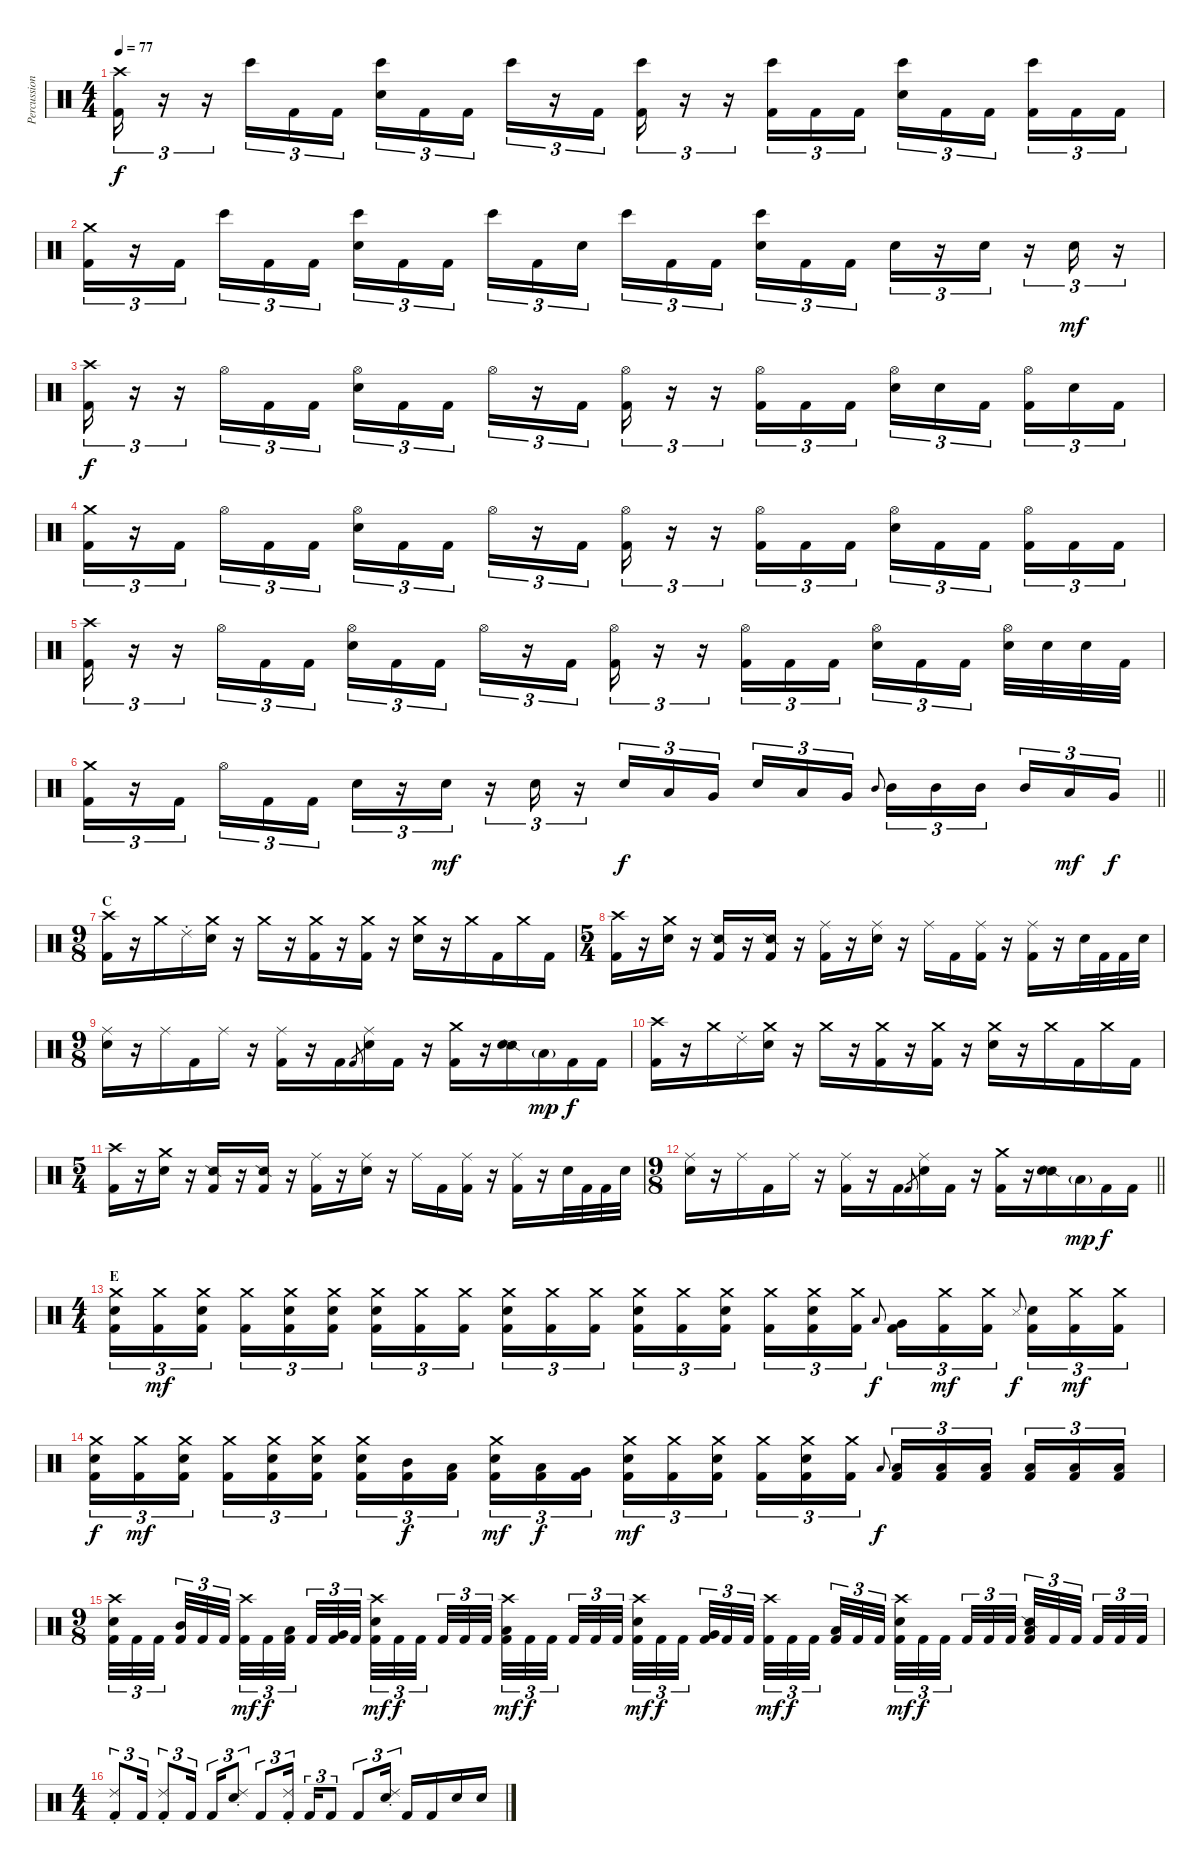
\track ("Percussion" "Percussion") {instrument percussion}
\staff {score}
\articulation defaults
\ts (4 4)
\tempo 77
\clef neutral
\ks c
("Crash high (hit)" "Kick (hit) 2").16{tu (3 2) dy f} r.16{tu (3 2)} r.16{tu (3 2)} "Bongo High (hit)".16{tu (3 2)} "Kick (hit) 2".16{tu (3 2)} "Kick (hit) 2".16{tu (3 2)} ("Bongo High (hit)" "Snare (hit) 2").16{tu (3 2)} "Kick (hit) 2".16{tu (3 2)} "Kick (hit) 2".16{tu (3 2) beam splitsecondary} "Bongo High (hit)".16{tu (3 2)} r.16{tu (3 2)} "Kick (hit) 2".16{tu (3 2)} ("Bongo High (hit)" "Kick (hit) 2").16{tu (3 2)} r.16{tu (3 2)} r.16{tu (3 2)} ("Bongo High (hit)" "Kick (hit) 2").16{tu (3 2)} "Kick (hit) 2".16{tu (3 2)} "Kick (hit) 2".16{tu (3 2)} ("Bongo High (hit)" "Snare (hit) 2").16{tu (3 2)} "Kick (hit) 2".16{tu (3 2)} "Kick (hit) 2".16{tu (3 2) beam splitsecondary} ("Bongo High (hit)" "Kick (hit) 2").16{tu (3 2)} "Kick (hit) 2".16{tu (3 2)} "Kick (hit) 2".16{tu (3 2)} |
("Crash medium (hit)" "Kick (hit) 2").16{tu (3 2)} r.16{tu (3 2)} "Kick (hit) 2".16{tu (3 2) beam splitsecondary} "Bongo High (hit)".16{tu (3 2)} "Kick (hit) 2".16{tu (3 2)} "Kick (hit) 2".16{tu (3 2)} ("Bongo High (hit)" "Snare (hit) 2").16{tu (3 2)} "Kick (hit) 2".16{tu (3 2)} "Kick (hit) 2".16{tu (3 2) beam splitsecondary} "Bongo High (hit)".16{tu (3 2)} "Kick (hit) 2".16{tu (3 2)} "Snare (hit) 2".16{tu (3 2)} "Bongo High (hit)".16{tu (3 2)} "Kick (hit) 2".16{tu (3 2)} "Kick (hit) 2".16{tu (3 2) beam splitsecondary} ("Bongo High (hit)" "Snare (hit) 2").16{tu (3 2)} "Kick (hit) 2".16{tu (3 2)} "Kick (hit) 2".16{tu (3 2)} "Snare (hit) 2".16{tu (3 2)} r.16{tu (3 2)} "Snare (hit) 2".16{tu (3 2)} r.16{tu (3 2)} "Snare (hit) 2".16{tu (3 2) dy mf} r.16{tu (3 2)} |
("Crash high (hit)" "Kick (hit) 2").16{tu (3 2) dy f} r.16{tu (3 2)} r.16{tu (3 2)} "Hi-Hat (open)".16{tu (3 2)} "Kick (hit) 2".16{tu (3 2)} "Kick (hit) 2".16{tu (3 2)} ("Hi-Hat (open)" "Snare (hit) 2").16{tu (3 2)} "Kick (hit) 2".16{tu (3 2)} "Kick (hit) 2".16{tu (3 2) beam splitsecondary} "Hi-Hat (open)".16{tu (3 2)} r.16{tu (3 2)} "Kick (hit) 2".16{tu (3 2)} ("Hi-Hat (open)" "Kick (hit) 2").16{tu (3 2)} r.16{tu (3 2)} r.16{tu (3 2)} ("Hi-Hat (open)" "Kick (hit) 2").16{tu (3 2)} "Kick (hit) 2".16{tu (3 2)} "Kick (hit) 2".16{tu (3 2)} ("Hi-Hat (open)" "Snare (hit) 2").16{tu (3 2)} "Snare (hit) 2".16{tu (3 2)} "Kick (hit) 2".16{tu (3 2) beam splitsecondary} ("Hi-Hat (open)" "Kick (hit) 2").16{tu (3 2)} "Snare (hit) 2".16{tu (3 2)} "Kick (hit) 2".16{tu (3 2)} |
("Crash medium (hit)" "Kick (hit) 2").16{tu (3 2)} r.16{tu (3 2)} "Kick (hit) 2".16{tu (3 2) beam splitsecondary} "Hi-Hat (open)".16{tu (3 2)} "Kick (hit) 2".16{tu (3 2)} "Kick (hit) 2".16{tu (3 2)} ("Hi-Hat (open)" "Snare (hit) 2").16{tu (3 2)} "Kick (hit) 2".16{tu (3 2)} "Kick (hit) 2".16{tu (3 2) beam splitsecondary} "Hi-Hat (open)".16{tu (3 2)} r.16{tu (3 2)} "Kick (hit) 2".16{tu (3 2)} ("Hi-Hat (open)" "Kick (hit) 2").16{tu (3 2)} r.16{tu (3 2)} r.16{tu (3 2)} ("Hi-Hat (open)" "Kick (hit) 2").16{tu (3 2)} "Kick (hit) 2".16{tu (3 2)} "Kick (hit) 2".16{tu (3 2)} ("Hi-Hat (open)" "Snare (hit) 2").16{tu (3 2)} "Kick (hit) 2".16{tu (3 2)} "Kick (hit) 2".16{tu (3 2) beam splitsecondary} ("Hi-Hat (open)" "Kick (hit) 2").16{tu (3 2)} "Kick (hit) 2".16{tu (3 2)} "Kick (hit) 2".16{tu (3 2)} |
("Crash high (hit)" "Kick (hit) 2").16{tu (3 2)} r.16{tu (3 2)} r.16{tu (3 2)} "Hi-Hat (open)".16{tu (3 2)} "Kick (hit) 2".16{tu (3 2)} "Kick (hit) 2".16{tu (3 2)} ("Hi-Hat (open)" "Snare (hit) 2").16{tu (3 2)} "Kick (hit) 2".16{tu (3 2)} "Kick (hit) 2".16{tu (3 2) beam splitsecondary} "Hi-Hat (open)".16{tu (3 2)} r.16{tu (3 2)} "Kick (hit) 2".16{tu (3 2)} ("Hi-Hat (open)" "Kick (hit) 2").16{tu (3 2)} r.16{tu (3 2)} r.16{tu (3 2)} ("Hi-Hat (open)" "Kick (hit) 2").16{tu (3 2)} "Kick (hit) 2".16{tu (3 2)} "Kick (hit) 2".16{tu (3 2)} ("Hi-Hat (open)" "Snare (hit) 2").16{tu (3 2)} "Kick (hit) 2".16{tu (3 2)} "Kick (hit) 2".16{tu (3 2) beam splitsecondary} ("Hi-Hat (open)" "Snare (hit) 2").32 "Snare (hit) 2".32 "Snare (hit) 2".32 "Kick (hit) 2".32 |
\barLineRight lightlight
("Crash medium (hit)" "Kick (hit) 2").16{tu (3 2)} r.16{tu (3 2)} "Kick (hit) 2".16{tu (3 2) beam splitsecondary} "Hi-Hat (open)".16{tu (3 2)} "Kick (hit) 2".16{tu (3 2)} "Kick (hit) 2".16{tu (3 2)} "Snare (hit) 2".16{tu (3 2)} r.16{tu (3 2)} "Snare (hit) 2".16{tu (3 2) dy mf} r.16{tu (3 2)} "Snare (hit) 2".16{tu (3 2)} r.16{tu (3 2)} "Snare (hit) 2".16{tu (3 2) dy f} "Low Tom (hit)".16{tu (3 2)} "Very Low Tom (hit)".16{tu (3 2) beam splitsecondary} "Snare (hit) 2".16{tu (3 2)} "Low Tom (hit)".16{tu (3 2)} "Very Low Tom (hit)".16{tu (3 2)} "Mid Tom (hit)".8{gr onbeat} "Mid Tom (hit)".16{tu (3 2)} "Mid Tom (hit)".16{tu (3 2)} "Mid Tom (hit)".16{tu (3 2) beam splitsecondary} "Mid Tom (hit)".16{tu (3 2)} "Low Tom (hit)".16{tu (3 2) dy mf} "Very Low Tom (hit)".16{tu (3 2) dy f} |
\ts (9 8)
\section ("" "C")
("Crash high (hit)" "Kick (hit) 2").16 r.16 "Crash medium (hit)".16 "Ride (choke) 2".16 ("Crash medium (hit)" "Snare (hit) 2").16 r.16 "Crash medium (hit)".16 r.16 ("Crash medium (hit)" "Kick (hit) 2").16 r.16 ("Crash medium (hit)" "Kick (hit) 2").16 r.16 ("Crash medium (hit)" "Snare (hit) 2").16 r.16 "Crash medium (hit)".16 "Kick (hit) 2".16 "Crash medium (hit)".16 "Kick (hit) 2".16 |
\ts (5 4)
("Crash high (hit)" "Kick (hit) 2").16 r.16 ("Crash medium (hit)" "Snare (hit) 2").16 r.16 ("Snare (side stick) 2" "Kick (hit) 2").16 r.16 ("Snare (side stick) 2" "Kick (hit) 2").16 r.16 ("Ride (middle)" "Kick (hit) 2").16 r.16 ("Ride (middle)" "Snare (hit) 2").16 r.16 "Ride (middle)".16 "Kick (hit) 2".16 ("Ride (middle)" "Kick (hit) 2").16 r.16 ("Ride (middle)" "Kick (hit) 2").16 r.16 "Snare (hit) 2".32 "Kick (hit) 2".32 "Kick (hit) 2".32 "Snare (hit) 2".32 |
\ts (9 8)
("Ride (middle)" "Snare (hit) 2").16 r.16 "Ride (middle)".16 "Kick (hit) 2".16 "Ride (middle)".16 r.16 ("Ride (middle)" "Kick (hit) 2").16 r.16 "Kick (hit) 2".16 "Kick (hit) 2".8{gr} ("Ride (middle)" "Snare (hit) 2").16 "Kick (hit) 2".16 r.16 ("Crash medium (hit)" "Kick (hit) 2").16 r.16 ("Snare (side stick) 2" "Snare (hit) 2").16 "Low Tom (hit)"{g}.16{dy mp} "Kick (hit) 2".16{dy f} "Kick (hit) 2".16 |
("Crash high (hit)" "Kick (hit) 2").16 r.16 "Crash medium (hit)".16 "Ride (choke) 2".16 ("Crash medium (hit)" "Snare (hit) 2").16 r.16 "Crash medium (hit)".16 r.16 ("Crash medium (hit)" "Kick (hit) 2").16 r.16 ("Crash medium (hit)" "Kick (hit) 2").16 r.16 ("Crash medium (hit)" "Snare (hit) 2").16 r.16 "Crash medium (hit)".16 "Kick (hit) 2".16 "Crash medium (hit)".16 "Kick (hit) 2".16 |
\ts (5 4)
("Crash high (hit)" "Kick (hit) 2").16 r.16 ("Crash medium (hit)" "Snare (hit) 2").16 r.16 ("Snare (side stick) 2" "Kick (hit) 2").16 r.16 ("Snare (side stick) 2" "Kick (hit) 2").16 r.16 ("Ride (middle)" "Kick (hit) 2").16 r.16 ("Ride (middle)" "Snare (hit) 2").16 r.16 "Ride (middle)".16 "Kick (hit) 2".16 ("Ride (middle)" "Kick (hit) 2").16 r.16 ("Ride (middle)" "Kick (hit) 2").16 r.16 "Snare (hit) 2".32 "Kick (hit) 2".32 "Kick (hit) 2".32 "Snare (hit) 2".32 |
\ts (9 8)
\barLineRight lightlight
("Ride (middle)" "Snare (hit) 2").16 r.16 "Ride (middle)".16 "Kick (hit) 2".16 "Ride (middle)".16 r.16 ("Ride (middle)" "Kick (hit) 2").16 r.16 "Kick (hit) 2".16 "Kick (hit) 2".8{gr} ("Ride (middle)" "Snare (hit) 2").16 "Kick (hit) 2".16 r.16 ("Crash medium (hit)" "Kick (hit) 2").16 r.16 ("Snare (side stick) 2" "Snare (hit) 2").16 "Low Tom (hit)"{g}.16{dy mp} "Kick (hit) 2".16{dy f} "Kick (hit) 2".16 |
\ts (4 4)
\section ("" "E")
("Crash medium (hit)" "Snare (hit) 2" "Kick (hit) 2").16{tu (3 2)} ("Crash medium (hit)" "Kick (hit) 2").16{tu (3 2) dy mf} ("Crash medium (hit)" "Snare (hit) 2" "Kick (hit) 2").16{tu (3 2) beam splitsecondary} ("Crash medium (hit)" "Kick (hit) 2").16{tu (3 2)} ("Crash medium (hit)" "Snare (hit) 2" "Kick (hit) 2").16{tu (3 2)} ("Crash medium (hit)" "Snare (hit) 2" "Kick (hit) 2").16{tu (3 2)} ("Crash medium (hit)" "Snare (hit) 2" "Kick (hit) 2").16{tu (3 2)} ("Crash medium (hit)" "Kick (hit) 2").16{tu (3 2)} ("Crash medium (hit)" "Kick (hit) 2").16{tu (3 2) beam splitsecondary} ("Crash medium (hit)" "Snare (hit) 2" "Kick (hit) 2").16{tu (3 2)} ("Crash medium (hit)" "Kick (hit) 2").16{tu (3 2)} ("Crash medium (hit)" "Kick (hit) 2").16{tu (3 2)} ("Crash medium (hit)" "Snare (hit) 2" "Kick (hit) 2").16{tu (3 2)} ("Crash medium (hit)" "Kick (hit) 2").16{tu (3 2)} ("Crash medium (hit)" "Snare (hit) 2" "Kick (hit) 2").16{tu (3 2) beam splitsecondary} ("Crash medium (hit)" "Kick (hit) 2").16{tu (3 2)} ("Crash medium (hit)" "Snare (hit) 2" "Kick (hit) 2").16{tu (3 2)} ("Crash medium (hit)" "Kick (hit) 2").16{tu (3 2)} "Low Tom (hit)".8{gr onbeat dy f} ("Very Low Tom (hit)" "Kick (hit) 2").16{tu (3 2)} ("Crash medium (hit)" "Kick (hit) 2").16{tu (3 2) dy mf} ("Crash medium (hit)" "Kick (hit) 2").16{tu (3 2)} "Metronome (hit)".8{gr onbeat dy f beam splitsecondary} ("Snare (hit) 2" "Kick (hit) 2").16{tu (3 2)} ("Crash medium (hit)" "Kick (hit) 2").16{tu (3 2) dy mf} ("Crash medium (hit)" "Kick (hit) 2").16{tu (3 2)} |
("Crash medium (hit)" "Snare (hit) 2" "Kick (hit) 2").16{tu (3 2) dy f} ("Crash medium (hit)" "Kick (hit) 2").16{tu (3 2) dy mf} ("Crash medium (hit)" "Snare (hit) 2" "Kick (hit) 2").16{tu (3 2) beam splitsecondary} ("Crash medium (hit)" "Kick (hit) 2").16{tu (3 2)} ("Crash medium (hit)" "Snare (hit) 2" "Kick (hit) 2").16{tu (3 2)} ("Crash medium (hit)" "Snare (hit) 2" "Kick (hit) 2").16{tu (3 2)} ("Crash medium (hit)" "Snare (hit) 2" "Kick (hit) 2").16{tu (3 2)} ("Mid Tom (hit)" "Kick (hit) 2").16{tu (3 2) dy f} ("Low Tom (hit)" "Kick (hit) 2").16{tu (3 2) beam splitsecondary} ("Crash medium (hit)" "Snare (hit) 2" "Kick (hit) 2").16{tu (3 2) dy mf} ("Low Tom (hit)" "Kick (hit) 2").16{tu (3 2) dy f} ("Very Low Tom (hit)" "Kick (hit) 2").16{tu (3 2)} ("Crash medium (hit)" "Snare (hit) 2" "Kick (hit) 2").16{tu (3 2) dy mf} ("Crash medium (hit)" "Kick (hit) 2").16{tu (3 2)} ("Crash medium (hit)" "Snare (hit) 2" "Kick (hit) 2").16{tu (3 2) beam splitsecondary} ("Crash medium (hit)" "Kick (hit) 2").16{tu (3 2)} ("Crash medium (hit)" "Snare (hit) 2" "Kick (hit) 2").16{tu (3 2)} ("Crash medium (hit)" "Kick (hit) 2").16{tu (3 2)} "Low Tom (hit)".8{gr onbeat dy f} ("Low Tom (hit)" "Kick (hit) 2").16{tu (3 2)} ("Low Tom (hit)" "Kick (hit) 2").16{tu (3 2)} ("Low Tom (hit)" "Kick (hit) 2").16{tu (3 2) beam splitsecondary} ("Low Tom (hit)" "Kick (hit) 2").16{tu (3 2)} ("Low Tom (hit)" "Kick (hit) 2").16{tu (3 2)} ("Low Tom (hit)" "Kick (hit) 2").16{tu (3 2)} |
\ts (9 8)
("Crash high (hit)" "Snare (hit) 2" "Kick (hit) 2").32{tu (3 2)} "Kick (hit) 2".32{tu (3 2)} "Kick (hit) 2".32{tu (3 2) beam splitsecondary} ("Mid Tom (hit)" "Kick (hit) 2").32{tu (3 2)} "Kick (hit) 2".32{tu (3 2)} "Kick (hit) 2".32{tu (3 2) beam splitsecondary} ("Crash high (hit)" "Kick (hit) 2").32{tu (3 2) dy mf} "Kick (hit) 2".32{tu (3 2) dy f} ("Low Tom (hit)" "Kick (hit) 2").32{tu (3 2) beam splitsecondary} "Kick (hit) 2".32{tu (3 2)} ("Very Low Tom (hit)" "Kick (hit) 2").32{tu (3 2)} "Kick (hit) 2".32{tu (3 2) beam splitsecondary} ("Crash high (hit)" "Snare (hit) 2" "Kick (hit) 2").32{tu (3 2) dy mf} "Kick (hit) 2".32{tu (3 2) dy f} "Kick (hit) 2".32{tu (3 2) beam splitsecondary} "Kick (hit) 2".32{tu (3 2)} "Kick (hit) 2".32{tu (3 2)} "Kick (hit) 2".32{tu (3 2)} ("Crash high (hit)" "Low Tom (hit)" "Kick (hit) 2").32{tu (3 2) dy mf} "Kick (hit) 2".32{tu (3 2) dy f} "Kick (hit) 2".32{tu (3 2) beam splitsecondary} "Kick (hit) 2".32{tu (3 2)} "Kick (hit) 2".32{tu (3 2)} "Kick (hit) 2".32{tu (3 2) beam splitsecondary} ("Crash high (hit)" "Snare (hit) 2" "Kick (hit) 2").32{tu (3 2) dy mf} "Kick (hit) 2".32{tu (3 2) dy f} "Kick (hit) 2".32{tu (3 2) beam splitsecondary} ("Very Low Tom (hit)" "Kick (hit) 2").32{tu (3 2)} "Kick (hit) 2".32{tu (3 2)} "Kick (hit) 2".32{tu (3 2) beam splitsecondary} ("Crash high (hit)" "Kick (hit) 2").32{tu (3 2) dy mf} "Kick (hit) 2".32{tu (3 2) dy f} "Kick (hit) 2".32{tu (3 2) beam splitsecondary} ("Low Tom (hit)" "Kick (hit) 2").32{tu (3 2)} "Kick (hit) 2".32{tu (3 2)} "Kick (hit) 2".32{tu (3 2)} ("Crash high (hit)" "Snare (hit) 2" "Kick (hit) 2").32{tu (3 2) dy mf} "Kick (hit) 2".32{tu (3 2) dy f} "Kick (hit) 2".32{tu (3 2) beam splitsecondary} "Kick (hit) 2".32{tu (3 2)} "Kick (hit) 2".32{tu (3 2)} "Kick (hit) 2".32{tu (3 2) beam splitsecondary} ("Snare (side stick) 2" "Low Floor Tom (hit)" "Kick (hit) 2").32{tu (3 2)} "Kick (hit) 2".32{tu (3 2)} "Kick (hit) 2".32{tu (3 2) beam splitsecondary} "Kick (hit) 2".32{tu (3 2)} "Kick (hit) 2".32{tu (3 2)} "Kick (hit) 2".32{tu (3 2)} |
\ts (4 4)
("Ride (choke) 2" "Kick (hit) 2").8{tu (3 2)} "Kick (hit) 2".16{tu (3 2)} ("Ride (choke) 2" "Kick (hit) 2").8{tu (3 2)} "Kick (hit) 2".16{tu (3 2)} "Kick (hit) 2".16{tu (3 2)} ("Ride (choke) 2" "Snare (hit) 2").8{tu (3 2)} "Kick (hit) 2".8{tu (3 2)} ("Ride (choke) 2" "Kick (hit) 2").16{tu (3 2)} "Kick (hit) 2".16{tu (3 2)} "Kick (hit) 2".8{tu (3 2)} "Kick (hit) 2".8{tu (3 2)} ("Ride (choke) 2" "Snare (hit) 2").16{tu (3 2)} "Kick (hit) 2".16 "Kick (hit) 2".16 "Snare (hit) 2".16 "Snare (hit) 2".16
